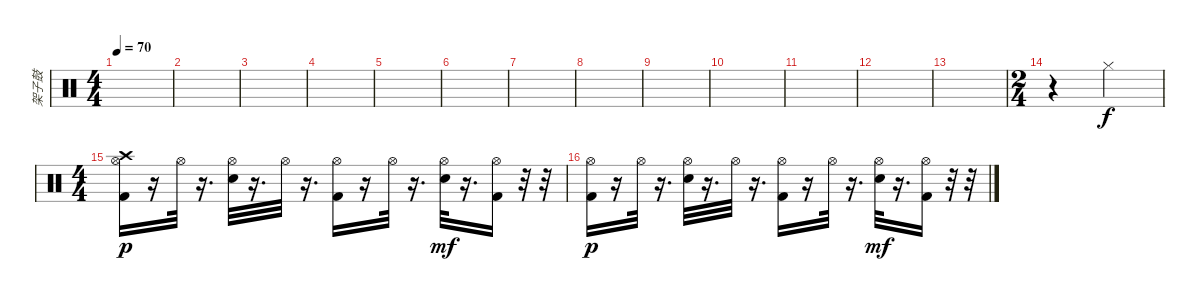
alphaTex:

\track ("架子鼓" "架子鼓") {instrument percussion}
\staff {score}
\articulation defaults
\ts (4 4)
\tempo 70
\clef neutral
\ks c
|
|
|
|
|
|
|
|
|
|
|
|
|
\ts (2 4)
r.4 "Hi-Hat (closed)".4 |
\ts (4 4)
("Hi-Hat (open)" "Kick (hit) 2" "Crash high (hit)").16{dy p} r.16 "Hi-Hat (open)".32 r.16{d} ("Hi-Hat (open)" "Snare (hit) 2").32 r.16{d} "Hi-Hat (open)".32 r.16{d} ("Hi-Hat (open)" "Kick (hit) 2").16 r.16 "Hi-Hat (open)".32 r.16{d} ("Hi-Hat (open)" "Snare (hit) 2").32{dy mf} r.16{d} ("Hi-Hat (open)" "Kick (hit) 2").16 r.32 r.32 |
("Hi-Hat (open)" "Kick (hit) 2").16{dy p} r.16 "Hi-Hat (open)".32 r.16{d} ("Hi-Hat (open)" "Snare (hit) 2").32 r.16{d} "Hi-Hat (open)".32 r.16{d} ("Hi-Hat (open)" "Kick (hit) 2").16 r.16 "Hi-Hat (open)".32 r.16{d} ("Hi-Hat (open)" "Snare (hit) 2").32{dy mf} r.16{d} ("Hi-Hat (open)" "Kick (hit) 2").16 r.32 r.32
